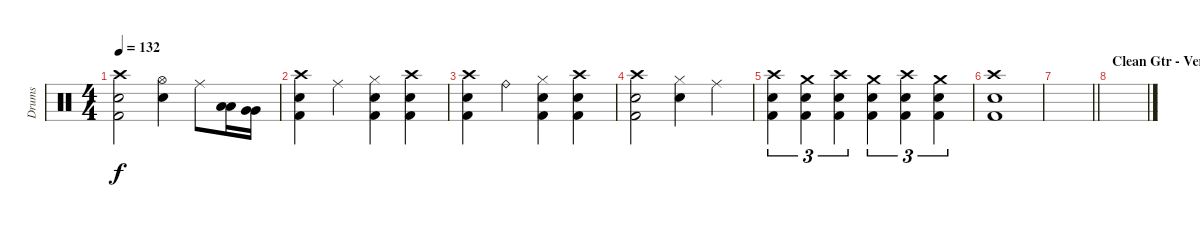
\track ("Drums" "Drums") {instrument percussion}
\staff {score}
\articulation defaults
\ts (4 4)
\tempo 132
\clef neutral
\ks c
("Crash high (hit)" "Snare (hit) 2" "Kick (hit) 2").2{dy f} ("Hi-Hat (open)" "Snare (hit) 2").4 "Ride (middle)".8 ("Low Tom (hit)" "Low Tom (hit)").16 ("Very Low Tom (hit)" "Very Low Tom (hit)").16 |
("Crash high (hit)" "Snare (hit) 2" "Kick (hit) 2").4 "Ride (middle)".4 ("Hi-Hat (closed)" "Snare (hit) 2" "Kick (hit) 2").4 ("Crash high (hit)" "Snare (hit) 2" "Kick (hit) 2").4 |
("Crash high (hit)" "Snare (hit) 2" "Kick (hit) 2").4 "Ride (bell)".4 ("Hi-Hat (closed)" "Snare (hit) 2" "Kick (hit) 2").4 ("Crash high (hit)" "Snare (hit) 2" "Kick (hit) 2").4 |
("Crash high (hit)" "Snare (hit) 2" "Kick (hit) 2").2 ("Hi-Hat (closed)" "Snare (hit) 2").4 "Ride (middle)".4 |
("Crash high (hit)" "Snare (hit) 2" "Kick (hit) 2").4{tu (3 2)} ("Crash medium (hit)" "Snare (hit) 2" "Kick (hit) 2").4{tu (3 2)} ("Crash high (hit)" "Snare (hit) 2" "Kick (hit) 2").4{tu (3 2)} ("Crash medium (hit)" "Snare (hit) 2" "Kick (hit) 2").4{tu (3 2)} ("Crash high (hit)" "Snare (hit) 2" "Kick (hit) 2").4{tu (3 2)} ("Crash medium (hit)" "Snare (hit) 2" "Kick (hit) 2").4{tu (3 2)} |
("Crash high (hit)" "Snare (hit) 2" "Kick (hit) 2").1 |
\barLineRight lightlight
|
\section ("" "Clean Gtr - Verse 3")
